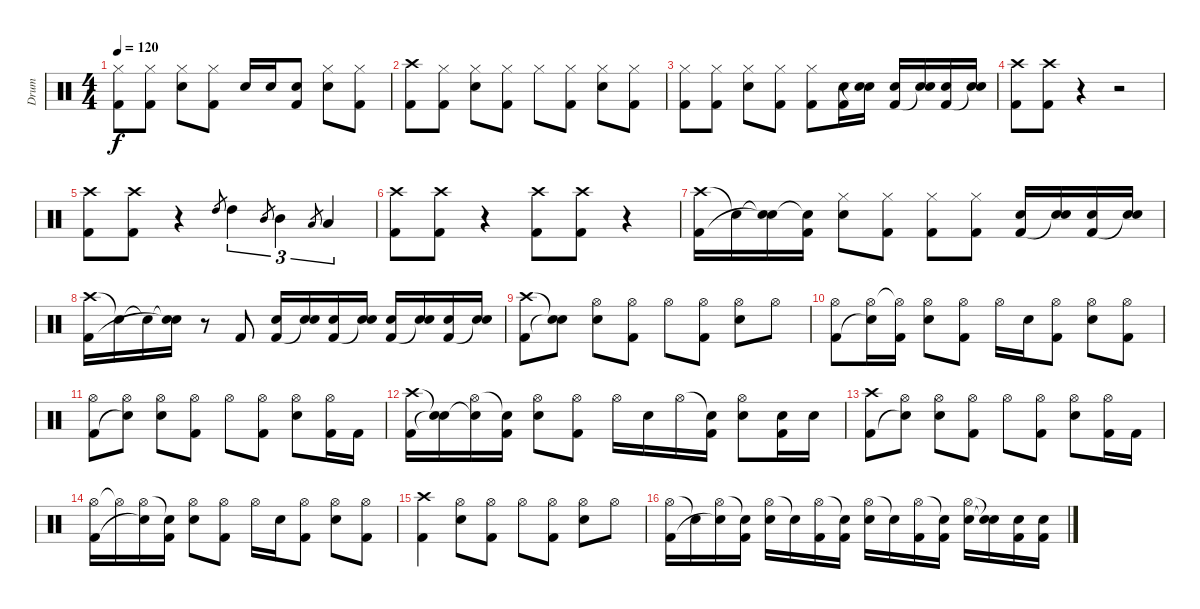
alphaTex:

\track ("Drum" "Drum") {instrument percussion}
\staff {score}
\articulation defaults
\ts (4 4)
\tempo 120
\clef neutral
\ks c
("Hi-Hat (closed)" "Kick (hit) 2").8{dy f} ("Hi-Hat (closed)" "Kick (hit) 2").8 ("Hi-Hat (closed)" "Snare (hit) 2").8 ("Hi-Hat (closed)" "Kick (hit) 2").8 "Snare (hit) 2".16 "Snare (hit) 2".16 ("Snare (hit) 2" "Kick (hit) 2").8 ("Hi-Hat (closed)" "Snare (hit) 2").8 ("Hi-Hat (closed)" "Kick (hit) 2").8 |
("Crash high (hit)" "Kick (hit) 2").8 ("Hi-Hat (closed)" "Kick (hit) 2").8 ("Hi-Hat (closed)" "Snare (hit) 2").8 ("Hi-Hat (closed)" "Kick (hit) 2").8 "Hi-Hat (closed)".8 ("Hi-Hat (closed)" "Kick (hit) 2").8 ("Hi-Hat (closed)" "Snare (hit) 2").8 ("Hi-Hat (closed)" "Kick (hit) 2").8 |
("Hi-Hat (closed)" "Kick (hit) 2").8 ("Hi-Hat (closed)" "Kick (hit) 2").8 ("Hi-Hat (closed)" "Snare (hit) 2").8 ("Hi-Hat (closed)" "Kick (hit) 2").8 ("Hi-Hat (closed)" "Kick (hit) 2").8 ("Snare (hit) 2" "Kick (hit) 2").16 ("Snare (hit) 2" "Snare (hit)"{t}).16 ("Snare (hit) 2" "Kick (hit) 2").16 ("Snare (hit) 2" "Snare (hit)"{t}).16 ("Snare (hit) 2" "Kick (hit) 2").16 ("Snare (hit) 2" "Snare (hit)"{t}).16 |
("Crash high (hit)" "Kick (hit) 2").8 ("Crash high (hit)" "Kick (hit) 2").8 r.4 r.2 |
("Crash high (hit)" "Kick (hit) 2").8 ("Crash high (hit)" "Kick (hit) 2").8 r.4 "High Tom (hit)".8{gr} "High Tom (hit)".4{tu (3 2)} "Mid Tom (hit)".8{gr} "Mid Tom (hit)".4{tu (3 2)} "Low Tom (hit)".8{gr} "Low Tom (hit)".4{tu (3 2)} |
("Crash high (hit)" "Kick (hit) 2").8 ("Crash high (hit)" "Kick (hit) 2").8 r.4 ("Crash high (hit)" "Kick (hit) 2").8 ("Crash high (hit)" "Kick (hit) 2").8 r.4 |
("Crash high (hit)" "Kick (hit) 2").16 "Snare (hit)"{t}.16 ("Snare (hit)"{t} "Snare (hit)"{t}).16 ("Snare (hit)"{t} "Kick (hit) 2").16 ("Hi-Hat (closed)" "Snare (hit) 2").8 ("Hi-Hat (closed)" "Kick (hit) 2").8 ("Hi-Hat (closed)" "Kick (hit) 2").8 ("Hi-Hat (closed)" "Kick (hit) 2").8 ("Snare (hit) 2" "Kick (hit) 2").16 ("Snare (hit) 2" "Snare (hit)"{t}).16 ("Snare (hit) 2" "Kick (hit) 2").16 ("Snare (hit) 2" "Snare (hit)"{t}).16 |
("Crash high (hit)" "Kick (hit) 2").16 "Snare (hit)"{t}.16 "Snare (hit)"{t}.16 ("Snare (hit)"{t} "Snare (hit)"{t}).16 r.8 "Kick (hit) 2".8 ("Snare (hit) 2" "Kick (hit) 2").16 ("Snare (hit) 2" "Snare (hit)"{t}).16 ("Snare (hit) 2" "Kick (hit) 2").16 ("Snare (hit) 2" "Snare (hit)"{t}).16 ("Snare (hit) 2" "Kick (hit) 2").16 ("Snare (hit) 2" "Snare (hit)"{t}).16 ("Snare (hit) 2" "Kick (hit) 2").16 ("Snare (hit) 2" "Snare (hit)"{t}).16 |
("Crash high (hit)" "Kick (hit) 2").8 ("Snare (hit)"{t} "Snare (hit)"{t}).8 ("Hi-Hat (open)" "Snare (hit) 2").8 ("Hi-Hat (open)" "Kick (hit) 2").8 "Hi-Hat (open)".8 ("Hi-Hat (open)" "Kick (hit) 2").8 ("Hi-Hat (open)" "Snare (hit) 2").8 "Hi-Hat (open)".8 |
("Hi-Hat (open)" "Kick (hit) 2").8 ("Hi-Hat (open)" "Snare (hit)"{t}).16 ("Hi-Hat (open)"{t} "Kick (hit) 2").16 ("Hi-Hat (open)" "Snare (hit) 2").8 ("Hi-Hat (open)" "Kick (hit) 2").8 "Hi-Hat (open)".16 "Snare (hit) 2".16 ("Hi-Hat (open)" "Kick (hit) 2").8 ("Hi-Hat (open)" "Snare (hit) 2").8 ("Hi-Hat (open)" "Kick (hit) 2").8 |
("Hi-Hat (open)" "Kick (hit) 2").8 ("Hi-Hat (open)" "Snare (hit)"{t}).8 ("Hi-Hat (open)" "Snare (hit) 2").8 ("Hi-Hat (open)" "Kick (hit) 2").8 "Hi-Hat (open)".8 ("Hi-Hat (open)" "Kick (hit) 2").8 ("Hi-Hat (open)" "Snare (hit) 2").8 ("Hi-Hat (open)" "Kick (hit) 2").16 "Kick (hit) 2".16 |
("Crash high (hit)" "Kick (hit) 2").16 ("Snare (hit)"{t} "Snare (hit)"{t}).16 ("Hi-Hat (open)" "Snare (hit)"{t}).16 ("Snare (hit)"{t} "Kick (hit) 2").16 ("Hi-Hat (open)" "Snare (hit) 2").8 ("Hi-Hat (open)" "Kick (hit) 2").8 "Hi-Hat (open)".16 "Snare (hit) 2".16 "Hi-Hat (open)".16 ("Snare (hit)"{t} "Kick (hit) 2").16 ("Hi-Hat (open)" "Snare (hit) 2").8 ("Snare (hit) 2" "Kick (hit) 2").16 "Snare (hit) 2".16 |
("Crash high (hit)" "Kick (hit) 2").8 ("Hi-Hat (open)" "Snare (hit)"{t}).8 ("Hi-Hat (open)" "Snare (hit) 2").8 ("Hi-Hat (open)" "Kick (hit) 2").8 "Hi-Hat (open)".8 ("Hi-Hat (open)" "Kick (hit) 2").8 ("Hi-Hat (open)" "Snare (hit) 2").8 ("Hi-Hat (open)" "Kick (hit) 2").16 "Kick (hit) 2".16 |
("Hi-Hat (open)" "Kick (hit) 2").16{volume 10} "Hi-Hat (open)"{t}.16 ("Hi-Hat (open)" "Snare (hit)"{t}).16 ("Snare (hit)"{t} "Kick (hit) 2").16 ("Hi-Hat (open)" "Snare (hit) 2").8 ("Hi-Hat (open)" "Kick (hit) 2").8 "Hi-Hat (open)".16 "Snare (hit) 2".16 ("Hi-Hat (open)" "Kick (hit) 2").8 ("Hi-Hat (open)" "Snare (hit) 2").8 ("Hi-Hat (open)" "Kick (hit) 2").8 |
("Crash high (hit)" "Kick (hit) 2").4{volume 9} ("Hi-Hat (open)" "Snare (hit) 2").8 ("Hi-Hat (open)" "Kick (hit) 2").8 "Hi-Hat (open)".8 ("Hi-Hat (open)" "Kick (hit) 2").8 ("Hi-Hat (open)" "Snare (hit) 2").8 "Hi-Hat (open)".8 |
("Hi-Hat (open)" "Kick (hit) 2").16{volume 8} "Snare (hit)"{t}.16 ("Hi-Hat (open)" "Snare (hit)"{t}).16 ("Snare (hit)"{t} "Kick (hit) 2").16 ("Hi-Hat (open)" "Snare (hit) 2").16 "Snare (hit)"{t}.16 ("Hi-Hat (open)" "Kick (hit) 2").16 ("Snare (hit)"{t} "Kick (hit) 2").16 ("Hi-Hat (open)" "Snare (hit) 2").16 "Snare (hit)"{t}.16 ("Hi-Hat (open)" "Kick (hit) 2").16 ("Snare (hit)"{t} "Kick (hit) 2").16 ("Hi-Hat (open)" "Snare (hit) 2").16 ("Snare (hit)"{t} "Snare (hit)"{t}).16 ("Snare (hit) 2" "Kick (hit) 2").16 ("Snare (hit) 2" "Kick (hit) 2").16
